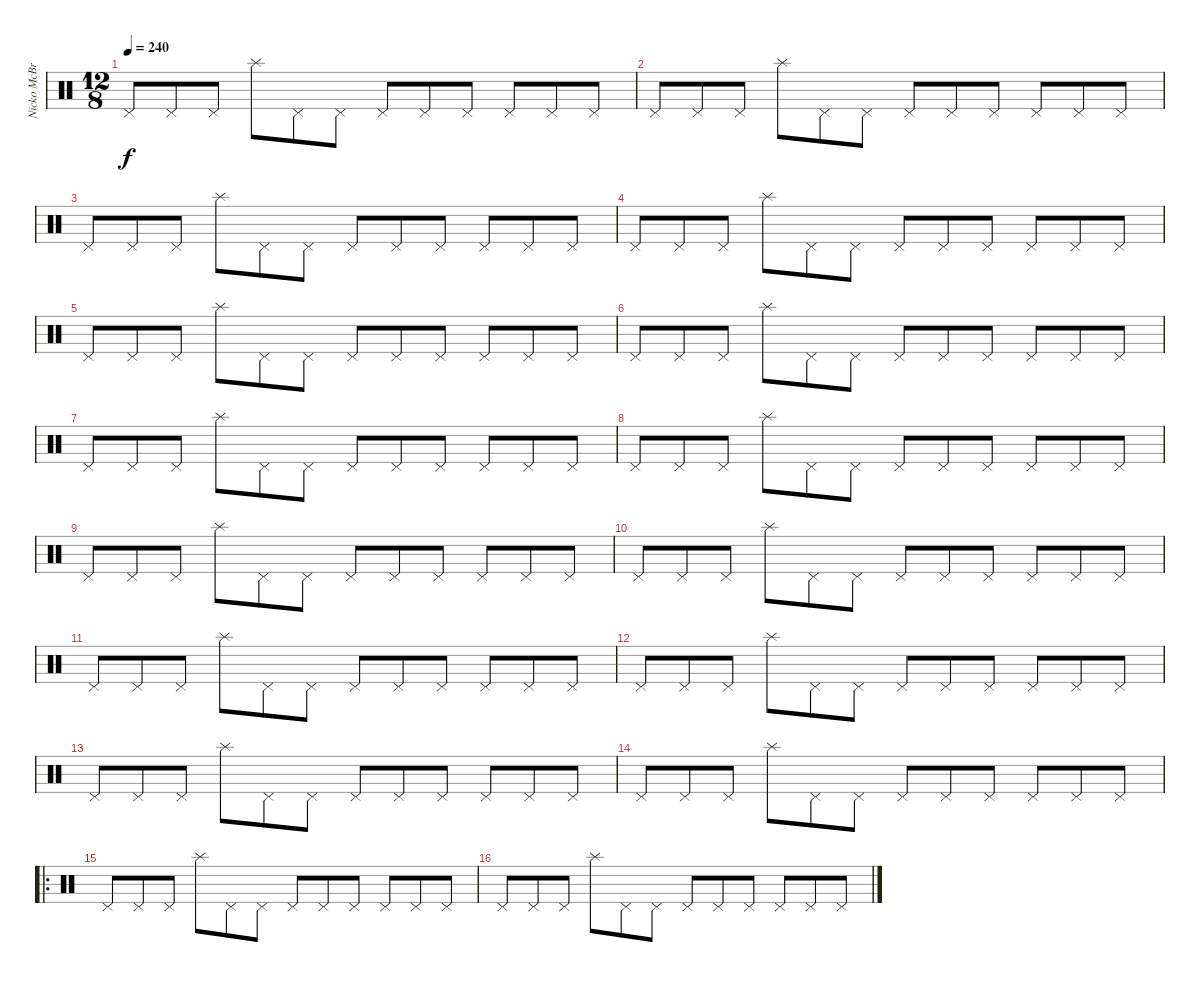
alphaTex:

\track ("Nicko McBrian (Drums)" "Nicko McBr") {instrument percussion}
\staff {score}
\articulation defaults
\ts (12 8)
\tempo 240
\clef neutral
\ks c "Pedal Hi-Hat (hit)".8{dy f} "Pedal Hi-Hat (hit)".8 "Pedal Hi-Hat (hit)".8 "Splash (hit)".8 "Pedal Hi-Hat (hit)".8 "Pedal Hi-Hat (hit)".8 "Pedal Hi-Hat (hit)".8 "Pedal Hi-Hat (hit)".8 "Pedal Hi-Hat (hit)".8 "Pedal Hi-Hat (hit)".8 "Pedal Hi-Hat (hit)".8 "Pedal Hi-Hat (hit)".8
|
"Pedal Hi-Hat (hit)".8 "Pedal Hi-Hat (hit)".8 "Pedal Hi-Hat (hit)".8 "Splash (hit)".8 "Pedal Hi-Hat (hit)".8 "Pedal Hi-Hat (hit)".8 "Pedal Hi-Hat (hit)".8 "Pedal Hi-Hat (hit)".8 "Pedal Hi-Hat (hit)".8 "Pedal Hi-Hat (hit)".8 "Pedal Hi-Hat (hit)".8 "Pedal Hi-Hat (hit)".8 |
"Pedal Hi-Hat (hit)".8 "Pedal Hi-Hat (hit)".8 "Pedal Hi-Hat (hit)".8 "Splash (hit)".8 "Pedal Hi-Hat (hit)".8 "Pedal Hi-Hat (hit)".8 "Pedal Hi-Hat (hit)".8 "Pedal Hi-Hat (hit)".8 "Pedal Hi-Hat (hit)".8 "Pedal Hi-Hat (hit)".8 "Pedal Hi-Hat (hit)".8 "Pedal Hi-Hat (hit)".8 |
"Pedal Hi-Hat (hit)".8 "Pedal Hi-Hat (hit)".8 "Pedal Hi-Hat (hit)".8 "Splash (hit)".8 "Pedal Hi-Hat (hit)".8 "Pedal Hi-Hat (hit)".8 "Pedal Hi-Hat (hit)".8 "Pedal Hi-Hat (hit)".8 "Pedal Hi-Hat (hit)".8 "Pedal Hi-Hat (hit)".8 "Pedal Hi-Hat (hit)".8 "Pedal Hi-Hat (hit)".8 |
"Pedal Hi-Hat (hit)".8 "Pedal Hi-Hat (hit)".8 "Pedal Hi-Hat (hit)".8 "Splash (hit)".8 "Pedal Hi-Hat (hit)".8 "Pedal Hi-Hat (hit)".8 "Pedal Hi-Hat (hit)".8 "Pedal Hi-Hat (hit)".8 "Pedal Hi-Hat (hit)".8 "Pedal Hi-Hat (hit)".8 "Pedal Hi-Hat (hit)".8 "Pedal Hi-Hat (hit)".8 |
"Pedal Hi-Hat (hit)".8 "Pedal Hi-Hat (hit)".8 "Pedal Hi-Hat (hit)".8 "Splash (hit)".8 "Pedal Hi-Hat (hit)".8 "Pedal Hi-Hat (hit)".8 "Pedal Hi-Hat (hit)".8 "Pedal Hi-Hat (hit)".8 "Pedal Hi-Hat (hit)".8 "Pedal Hi-Hat (hit)".8 "Pedal Hi-Hat (hit)".8 "Pedal Hi-Hat (hit)".8 |
"Pedal Hi-Hat (hit)".8 "Pedal Hi-Hat (hit)".8 "Pedal Hi-Hat (hit)".8 "Splash (hit)".8 "Pedal Hi-Hat (hit)".8 "Pedal Hi-Hat (hit)".8 "Pedal Hi-Hat (hit)".8 "Pedal Hi-Hat (hit)".8 "Pedal Hi-Hat (hit)".8 "Pedal Hi-Hat (hit)".8 "Pedal Hi-Hat (hit)".8 "Pedal Hi-Hat (hit)".8 |
"Pedal Hi-Hat (hit)".8 "Pedal Hi-Hat (hit)".8 "Pedal Hi-Hat (hit)".8 "Splash (hit)".8 "Pedal Hi-Hat (hit)".8 "Pedal Hi-Hat (hit)".8 "Pedal Hi-Hat (hit)".8 "Pedal Hi-Hat (hit)".8 "Pedal Hi-Hat (hit)".8 "Pedal Hi-Hat (hit)".8 "Pedal Hi-Hat (hit)".8 "Pedal Hi-Hat (hit)".8 |
"Pedal Hi-Hat (hit)".8 "Pedal Hi-Hat (hit)".8 "Pedal Hi-Hat (hit)".8 "Splash (hit)".8 "Pedal Hi-Hat (hit)".8 "Pedal Hi-Hat (hit)".8 "Pedal Hi-Hat (hit)".8 "Pedal Hi-Hat (hit)".8 "Pedal Hi-Hat (hit)".8 "Pedal Hi-Hat (hit)".8 "Pedal Hi-Hat (hit)".8 "Pedal Hi-Hat (hit)".8 |
"Pedal Hi-Hat (hit)".8 "Pedal Hi-Hat (hit)".8 "Pedal Hi-Hat (hit)".8 "Splash (hit)".8 "Pedal Hi-Hat (hit)".8 "Pedal Hi-Hat (hit)".8 "Pedal Hi-Hat (hit)".8 "Pedal Hi-Hat (hit)".8 "Pedal Hi-Hat (hit)".8 "Pedal Hi-Hat (hit)".8 "Pedal Hi-Hat (hit)".8 "Pedal Hi-Hat (hit)".8 |
"Pedal Hi-Hat (hit)".8 "Pedal Hi-Hat (hit)".8 "Pedal Hi-Hat (hit)".8 "Splash (hit)".8 "Pedal Hi-Hat (hit)".8 "Pedal Hi-Hat (hit)".8 "Pedal Hi-Hat (hit)".8 "Pedal Hi-Hat (hit)".8 "Pedal Hi-Hat (hit)".8 "Pedal Hi-Hat (hit)".8 "Pedal Hi-Hat (hit)".8 "Pedal Hi-Hat (hit)".8 |
"Pedal Hi-Hat (hit)".8 "Pedal Hi-Hat (hit)".8 "Pedal Hi-Hat (hit)".8 "Splash (hit)".8 "Pedal Hi-Hat (hit)".8 "Pedal Hi-Hat (hit)".8 "Pedal Hi-Hat (hit)".8 "Pedal Hi-Hat (hit)".8 "Pedal Hi-Hat (hit)".8 "Pedal Hi-Hat (hit)".8 "Pedal Hi-Hat (hit)".8 "Pedal Hi-Hat (hit)".8 |
"Pedal Hi-Hat (hit)".8 "Pedal Hi-Hat (hit)".8 "Pedal Hi-Hat (hit)".8 "Splash (hit)".8 "Pedal Hi-Hat (hit)".8 "Pedal Hi-Hat (hit)".8 "Pedal Hi-Hat (hit)".8 "Pedal Hi-Hat (hit)".8 "Pedal Hi-Hat (hit)".8 "Pedal Hi-Hat (hit)".8 "Pedal Hi-Hat (hit)".8 "Pedal Hi-Hat (hit)".8 |
"Pedal Hi-Hat (hit)".8 "Pedal Hi-Hat (hit)".8 "Pedal Hi-Hat (hit)".8 "Splash (hit)".8 "Pedal Hi-Hat (hit)".8 "Pedal Hi-Hat (hit)".8 "Pedal Hi-Hat (hit)".8 "Pedal Hi-Hat (hit)".8 "Pedal Hi-Hat (hit)".8 "Pedal Hi-Hat (hit)".8 "Pedal Hi-Hat (hit)".8 "Pedal Hi-Hat (hit)".8 |
\ro "Pedal Hi-Hat (hit)".8 "Pedal Hi-Hat (hit)".8 "Pedal Hi-Hat (hit)".8 "Splash (hit)".8 "Pedal Hi-Hat (hit)".8 "Pedal Hi-Hat (hit)".8 "Pedal Hi-Hat (hit)".8 "Pedal Hi-Hat (hit)".8 "Pedal Hi-Hat (hit)".8 "Pedal Hi-Hat (hit)".8 "Pedal Hi-Hat (hit)".8 "Pedal Hi-Hat (hit)".8
|
"Pedal Hi-Hat (hit)".8 "Pedal Hi-Hat (hit)".8 "Pedal Hi-Hat (hit)".8 "Splash (hit)".8 "Pedal Hi-Hat (hit)".8 "Pedal Hi-Hat (hit)".8 "Pedal Hi-Hat (hit)".8 "Pedal Hi-Hat (hit)".8 "Pedal Hi-Hat (hit)".8 "Pedal Hi-Hat (hit)".8 "Pedal Hi-Hat (hit)".8 "Pedal Hi-Hat (hit)".8
